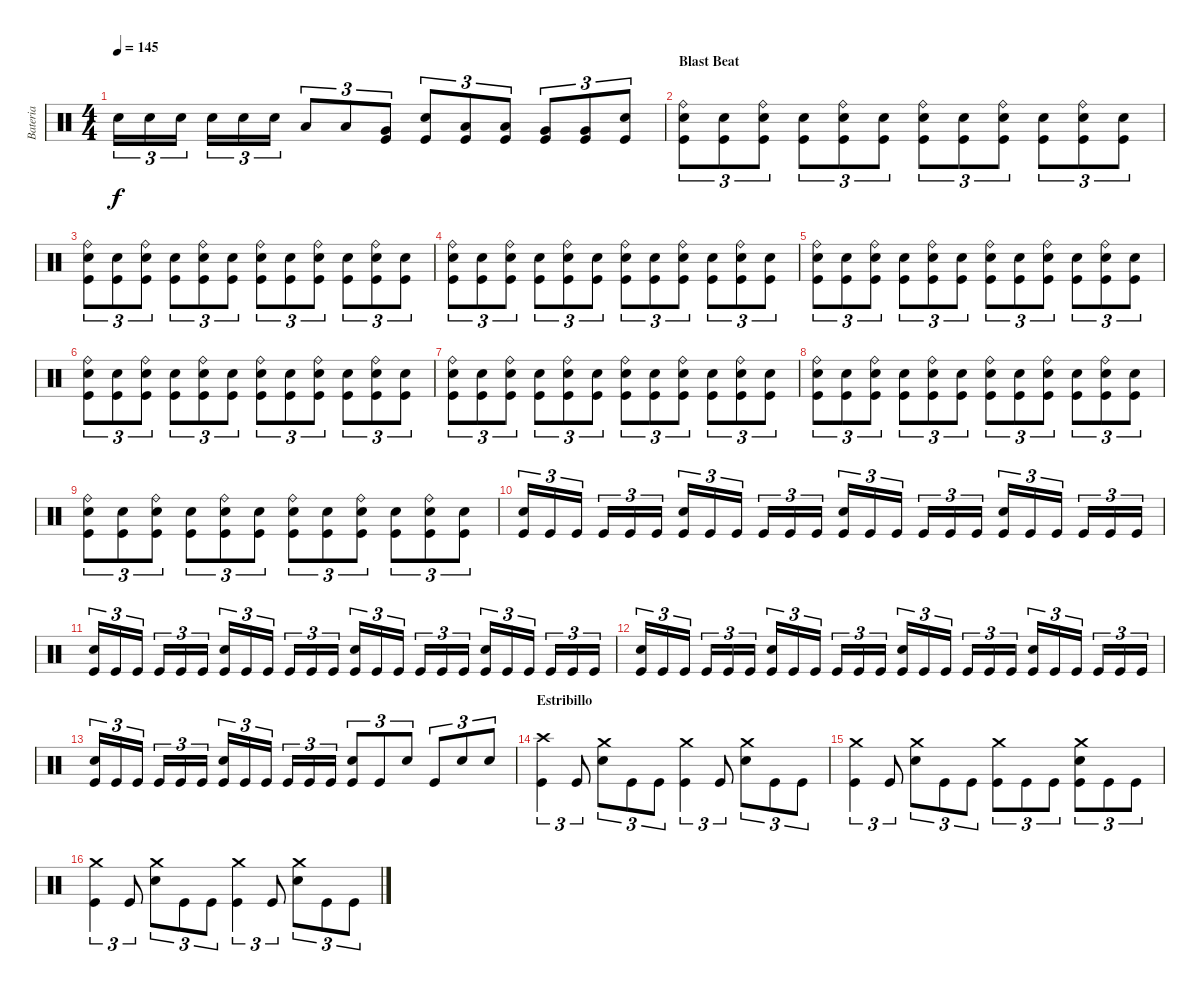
\track ("Bateria" "Bateria") {instrument percussion}
\staff {score}
\articulation defaults
\ts (4 4)
\tempo 145
\clef neutral
\ks c "Snare (hit) 2".16{tu (3 2) dy f} "Snare (hit) 2".16{tu (3 2)} "Snare (hit) 2".16{tu (3 2)} "Snare (hit) 2".16{tu (3 2)} "Snare (hit) 2".16{tu (3 2)} "Snare (hit) 2".16{tu (3 2)} "Low Tom (hit)".8{tu (3 2)} "Low Tom (hit)".8{tu (3 2)}
("Very Low Tom (hit)" "Kick (hit)").8{tu (3 2)} ("Snare (hit) 2" "Kick (hit)").8{tu (3 2)} ("Low Tom (hit)" "Kick (hit)").8{tu (3 2)} ("Low Tom (hit)" "Kick (hit)").8{tu (3 2)} ("Very Low Tom (hit)" "Kick (hit)").8{tu (3 2)} ("Very Low Tom (hit)" "Kick (hit)").8{tu (3 2)} ("Snare (hit) 2" "Kick (hit)").8{tu (3 2)} |
\section ("" "Blast Beat")
("Ride (bell)" "Snare (hit) 2" "Kick (hit)").8{tu (3 2)} ("Snare (hit) 2" "Kick (hit)").8{tu (3 2)} ("Ride (bell)" "Snare (hit) 2" "Kick (hit)").8{tu (3 2)} ("Snare (hit) 2" "Kick (hit)").8{tu (3 2)} ("Ride (bell)" "Snare (hit) 2" "Kick (hit)").8{tu (3 2)} ("Snare (hit) 2" "Kick (hit)").8{tu (3 2)} ("Ride (bell)" "Snare (hit) 2" "Kick (hit)").8{tu (3 2)} ("Snare (hit) 2" "Kick (hit)").8{tu (3 2)} ("Ride (bell)" "Snare (hit) 2" "Kick (hit)").8{tu (3 2)} ("Snare (hit) 2" "Kick (hit)").8{tu (3 2)} ("Ride (bell)" "Snare (hit) 2" "Kick (hit)").8{tu (3 2)} ("Snare (hit) 2" "Kick (hit)").8{tu (3 2)} |
("Ride (bell)" "Snare (hit) 2" "Kick (hit)").8{tu (3 2)} ("Snare (hit) 2" "Kick (hit)").8{tu (3 2)} ("Ride (bell)" "Snare (hit) 2" "Kick (hit)").8{tu (3 2)} ("Snare (hit) 2" "Kick (hit)").8{tu (3 2)} ("Ride (bell)" "Snare (hit) 2" "Kick (hit)").8{tu (3 2)} ("Snare (hit) 2" "Kick (hit)").8{tu (3 2)} ("Ride (bell)" "Snare (hit) 2" "Kick (hit)").8{tu (3 2)} ("Snare (hit) 2" "Kick (hit)").8{tu (3 2)} ("Ride (bell)" "Snare (hit) 2" "Kick (hit)").8{tu (3 2)} ("Snare (hit) 2" "Kick (hit)").8{tu (3 2)} ("Ride (bell)" "Snare (hit) 2" "Kick (hit)").8{tu (3 2)} ("Snare (hit) 2" "Kick (hit)").8{tu (3 2)} |
("Ride (bell)" "Snare (hit) 2" "Kick (hit)").8{tu (3 2)} ("Snare (hit) 2" "Kick (hit)").8{tu (3 2)} ("Ride (bell)" "Snare (hit) 2" "Kick (hit)").8{tu (3 2)} ("Snare (hit) 2" "Kick (hit)").8{tu (3 2)} ("Ride (bell)" "Snare (hit) 2" "Kick (hit)").8{tu (3 2)} ("Snare (hit) 2" "Kick (hit)").8{tu (3 2)} ("Ride (bell)" "Snare (hit) 2" "Kick (hit)").8{tu (3 2)} ("Snare (hit) 2" "Kick (hit)").8{tu (3 2)} ("Ride (bell)" "Snare (hit) 2" "Kick (hit)").8{tu (3 2)} ("Snare (hit) 2" "Kick (hit)").8{tu (3 2)} ("Ride (bell)" "Snare (hit) 2" "Kick (hit)").8{tu (3 2)} ("Snare (hit) 2" "Kick (hit)").8{tu (3 2)} |
("Ride (bell)" "Snare (hit) 2" "Kick (hit)").8{tu (3 2)} ("Snare (hit) 2" "Kick (hit)").8{tu (3 2)} ("Ride (bell)" "Snare (hit) 2" "Kick (hit)").8{tu (3 2)} ("Snare (hit) 2" "Kick (hit)").8{tu (3 2)} ("Ride (bell)" "Snare (hit) 2" "Kick (hit)").8{tu (3 2)} ("Snare (hit) 2" "Kick (hit)").8{tu (3 2)} ("Ride (bell)" "Snare (hit) 2" "Kick (hit)").8{tu (3 2)} ("Snare (hit) 2" "Kick (hit)").8{tu (3 2)} ("Ride (bell)" "Snare (hit) 2" "Kick (hit)").8{tu (3 2)} ("Snare (hit) 2" "Kick (hit)").8{tu (3 2)} ("Ride (bell)" "Snare (hit) 2" "Kick (hit)").8{tu (3 2)} ("Snare (hit) 2" "Kick (hit)").8{tu (3 2)} |
("Ride (bell)" "Snare (hit) 2" "Kick (hit)").8{tu (3 2)} ("Snare (hit) 2" "Kick (hit)").8{tu (3 2)} ("Ride (bell)" "Snare (hit) 2" "Kick (hit)").8{tu (3 2)} ("Snare (hit) 2" "Kick (hit)").8{tu (3 2)} ("Ride (bell)" "Snare (hit) 2" "Kick (hit)").8{tu (3 2)} ("Snare (hit) 2" "Kick (hit)").8{tu (3 2)} ("Ride (bell)" "Snare (hit) 2" "Kick (hit)").8{tu (3 2)} ("Snare (hit) 2" "Kick (hit)").8{tu (3 2)} ("Ride (bell)" "Snare (hit) 2" "Kick (hit)").8{tu (3 2)} ("Snare (hit) 2" "Kick (hit)").8{tu (3 2)} ("Ride (bell)" "Snare (hit) 2" "Kick (hit)").8{tu (3 2)} ("Snare (hit) 2" "Kick (hit)").8{tu (3 2)} |
("Ride (bell)" "Snare (hit) 2" "Kick (hit)").8{tu (3 2)} ("Snare (hit) 2" "Kick (hit)").8{tu (3 2)} ("Ride (bell)" "Snare (hit) 2" "Kick (hit)").8{tu (3 2)} ("Snare (hit) 2" "Kick (hit)").8{tu (3 2)} ("Ride (bell)" "Snare (hit) 2" "Kick (hit)").8{tu (3 2)} ("Snare (hit) 2" "Kick (hit)").8{tu (3 2)} ("Ride (bell)" "Snare (hit) 2" "Kick (hit)").8{tu (3 2)} ("Snare (hit) 2" "Kick (hit)").8{tu (3 2)} ("Ride (bell)" "Snare (hit) 2" "Kick (hit)").8{tu (3 2)} ("Snare (hit) 2" "Kick (hit)").8{tu (3 2)} ("Ride (bell)" "Snare (hit) 2" "Kick (hit)").8{tu (3 2)} ("Snare (hit) 2" "Kick (hit)").8{tu (3 2)} |
("Ride (bell)" "Snare (hit) 2" "Kick (hit)").8{tu (3 2)} ("Snare (hit) 2" "Kick (hit)").8{tu (3 2)} ("Ride (bell)" "Snare (hit) 2" "Kick (hit)").8{tu (3 2)} ("Snare (hit) 2" "Kick (hit)").8{tu (3 2)} ("Ride (bell)" "Snare (hit) 2" "Kick (hit)").8{tu (3 2)} ("Snare (hit) 2" "Kick (hit)").8{tu (3 2)} ("Ride (bell)" "Snare (hit) 2" "Kick (hit)").8{tu (3 2)} ("Snare (hit) 2" "Kick (hit)").8{tu (3 2)} ("Ride (bell)" "Snare (hit) 2" "Kick (hit)").8{tu (3 2)} ("Snare (hit) 2" "Kick (hit)").8{tu (3 2)} ("Ride (bell)" "Snare (hit) 2" "Kick (hit)").8{tu (3 2)} ("Snare (hit) 2" "Kick (hit)").8{tu (3 2)} |
("Ride (bell)" "Snare (hit) 2" "Kick (hit)").8{tu (3 2)} ("Snare (hit) 2" "Kick (hit)").8{tu (3 2)} ("Ride (bell)" "Snare (hit) 2" "Kick (hit)").8{tu (3 2)} ("Snare (hit) 2" "Kick (hit)").8{tu (3 2)} ("Ride (bell)" "Snare (hit) 2" "Kick (hit)").8{tu (3 2)} ("Snare (hit) 2" "Kick (hit)").8{tu (3 2)} ("Ride (bell)" "Snare (hit) 2" "Kick (hit)").8{tu (3 2)} ("Snare (hit) 2" "Kick (hit)").8{tu (3 2)} ("Ride (bell)" "Snare (hit) 2" "Kick (hit)").8{tu (3 2)} ("Snare (hit) 2" "Kick (hit)").8{tu (3 2)} ("Ride (bell)" "Snare (hit) 2" "Kick (hit)").8{tu (3 2)} ("Snare (hit) 2" "Kick (hit)").8{tu (3 2)} |
("Snare (hit) 2" "Kick (hit)").16{tu (3 2)} "Kick (hit)".16{tu (3 2)} "Kick (hit)".16{tu (3 2)} "Kick (hit)".16{tu (3 2)} "Kick (hit)".16{tu (3 2)} "Kick (hit)".16{tu (3 2)} ("Snare (hit) 2" "Kick (hit)").16{tu (3 2)} "Kick (hit)".16{tu (3 2)} "Kick (hit)".16{tu (3 2)} "Kick (hit)".16{tu (3 2)} "Kick (hit)".16{tu (3 2)} "Kick (hit)".16{tu (3 2)} ("Snare (hit) 2" "Kick (hit)").16{tu (3 2)} "Kick (hit)".16{tu (3 2)} "Kick (hit)".16{tu (3 2)} "Kick (hit)".16{tu (3 2)} "Kick (hit)".16{tu (3 2)} "Kick (hit)".16{tu (3 2)} ("Snare (hit) 2" "Kick (hit)").16{tu (3 2)} "Kick (hit)".16{tu (3 2)} "Kick (hit)".16{tu (3 2)} "Kick (hit)".16{tu (3 2)} "Kick (hit)".16{tu (3 2)} "Kick (hit)".16{tu (3 2)} |
("Snare (hit) 2" "Kick (hit)").16{tu (3 2)} "Kick (hit)".16{tu (3 2)} "Kick (hit)".16{tu (3 2)} "Kick (hit)".16{tu (3 2)} "Kick (hit)".16{tu (3 2)} "Kick (hit)".16{tu (3 2)} ("Snare (hit) 2" "Kick (hit)").16{tu (3 2)} "Kick (hit)".16{tu (3 2)} "Kick (hit)".16{tu (3 2)} "Kick (hit)".16{tu (3 2)} "Kick (hit)".16{tu (3 2)} "Kick (hit)".16{tu (3 2)} ("Snare (hit) 2" "Kick (hit)").16{tu (3 2)} "Kick (hit)".16{tu (3 2)} "Kick (hit)".16{tu (3 2)} "Kick (hit)".16{tu (3 2)} "Kick (hit)".16{tu (3 2)} "Kick (hit)".16{tu (3 2)} ("Snare (hit) 2" "Kick (hit)").16{tu (3 2)} "Kick (hit)".16{tu (3 2)} "Kick (hit)".16{tu (3 2)} "Kick (hit)".16{tu (3 2)} "Kick (hit)".16{tu (3 2)} "Kick (hit)".16{tu (3 2)} |
("Snare (hit) 2" "Kick (hit)").16{tu (3 2)} "Kick (hit)".16{tu (3 2)} "Kick (hit)".16{tu (3 2)} "Kick (hit)".16{tu (3 2)} "Kick (hit)".16{tu (3 2)} "Kick (hit)".16{tu (3 2)} ("Snare (hit) 2" "Kick (hit)").16{tu (3 2)} "Kick (hit)".16{tu (3 2)} "Kick (hit)".16{tu (3 2)} "Kick (hit)".16{tu (3 2)} "Kick (hit)".16{tu (3 2)} "Kick (hit)".16{tu (3 2)} ("Snare (hit) 2" "Kick (hit)").16{tu (3 2)} "Kick (hit)".16{tu (3 2)} "Kick (hit)".16{tu (3 2)} "Kick (hit)".16{tu (3 2)} "Kick (hit)".16{tu (3 2)} "Kick (hit)".16{tu (3 2)} ("Snare (hit) 2" "Kick (hit)").16{tu (3 2)} "Kick (hit)".16{tu (3 2)} "Kick (hit)".16{tu (3 2)} "Kick (hit)".16{tu (3 2)} "Kick (hit)".16{tu (3 2)} "Kick (hit)".16{tu (3 2)} |
("Snare (hit) 2" "Kick (hit)").16{tu (3 2)} "Kick (hit)".16{tu (3 2)} "Kick (hit)".16{tu (3 2)} "Kick (hit)".16{tu (3 2)} "Kick (hit)".16{tu (3 2)} "Kick (hit)".16{tu (3 2)} ("Snare (hit) 2" "Kick (hit)").16{tu (3 2)} "Kick (hit)".16{tu (3 2)} "Kick (hit)".16{tu (3 2)} "Kick (hit)".16{tu (3 2)} "Kick (hit)".16{tu (3 2)} "Kick (hit)".16{tu (3 2)} ("Snare (hit) 2" "Kick (hit)").8{tu (3 2)} "Kick (hit)".8{tu (3 2)} "Snare (hit) 2".8{tu (3 2)} "Kick (hit)".8{tu (3 2)} "Snare (hit) 2".8{tu (3 2)} "Snare (hit) 2".8{tu (3 2)} |
\section ("" "Estribillo")
("Crash high (hit)" "Kick (hit)").4{tu (3 2)} "Kick (hit)".8{tu (3 2)} ("Crash medium (hit)" "Snare (hit) 2").8{tu (3 2)} "Kick (hit)".8{tu (3 2)} "Kick (hit)".8{tu (3 2)} ("Crash medium (hit)" "Kick (hit)").4{tu (3 2)} "Kick (hit)".8{tu (3 2)} ("Crash medium (hit)" "Snare (hit) 2").8{tu (3 2)} "Kick (hit)".8{tu (3 2)} "Kick (hit)".8{tu (3 2)} |
("Crash medium (hit)" "Kick (hit)").4{tu (3 2)} "Kick (hit)".8{tu (3 2)} ("Crash medium (hit)" "Snare (hit) 2").8{tu (3 2)} "Kick (hit)".8{tu (3 2)} "Kick (hit)".8{tu (3 2)} ("Crash medium (hit)" "Kick (hit)").8{tu (3 2)} "Kick (hit)".8{tu (3 2)} "Kick (hit)".8{tu (3 2)} ("Crash medium (hit)" "Snare (hit) 2" "Kick (hit)").8{tu (3 2)} "Kick (hit)".8{tu (3 2)} "Kick (hit)".8{tu (3 2)} |
("Crash medium (hit)" "Kick (hit)").4{tu (3 2)} "Kick (hit)".8{tu (3 2)} ("Crash medium (hit)" "Snare (hit) 2").8{tu (3 2)} "Kick (hit)".8{tu (3 2)} "Kick (hit)".8{tu (3 2)} ("Crash medium (hit)" "Kick (hit)").4{tu (3 2)} "Kick (hit)".8{tu (3 2)} ("Crash medium (hit)" "Snare (hit) 2").8{tu (3 2)} "Kick (hit)".8{tu (3 2)} "Kick (hit)".8{tu (3 2)}
